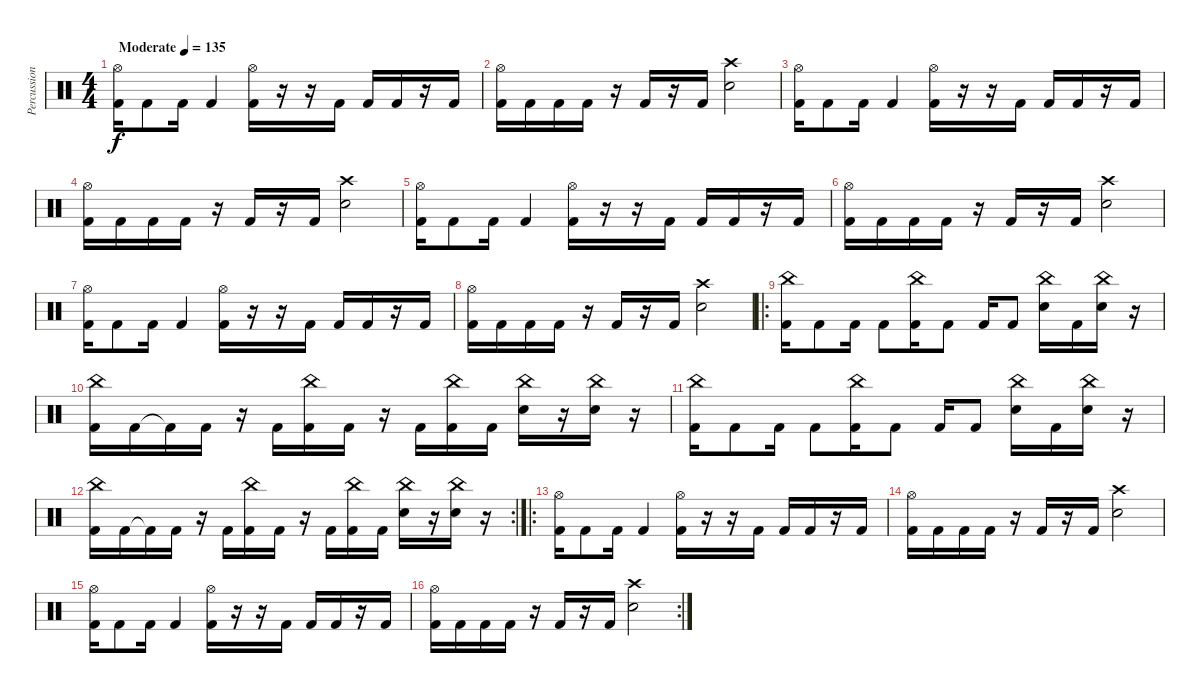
\track ("Percussion" "Percussion") {instrument percussion}
\staff {score}
\articulation defaults
\ts (4 4)
\tempo (135 "Moderate")
\clef neutral
\ks c
("Kick (hit) 2" "Hi-Hat (open)").16{dy f} "Kick (hit) 2".8 "Kick (hit) 2".16 "Kick (hit) 2".4 ("Kick (hit) 2" "Hi-Hat (open)").16 r.16 r.16 "Kick (hit) 2".16 "Kick (hit) 2".16 "Kick (hit) 2".16 r.16 "Kick (hit) 2".16 |
("Kick (hit) 2" "Hi-Hat (open)").16 "Kick (hit) 2".16 "Kick (hit) 2".16 "Kick (hit) 2".16 r.16 "Kick (hit) 2".16 r.16 "Kick (hit) 2".16 ("Snare (hit) 2" "Crash high (hit)").2 |
("Kick (hit) 2" "Hi-Hat (open)").16 "Kick (hit) 2".8 "Kick (hit) 2".16 "Kick (hit) 2".4 ("Kick (hit) 2" "Hi-Hat (open)").16 r.16 r.16 "Kick (hit) 2".16 "Kick (hit) 2".16 "Kick (hit) 2".16 r.16 "Kick (hit) 2".16 |
("Kick (hit) 2" "Hi-Hat (open)").16 "Kick (hit) 2".16 "Kick (hit) 2".16 "Kick (hit) 2".16 r.16 "Kick (hit) 2".16 r.16 "Kick (hit) 2".16 ("Snare (hit) 2" "Crash high (hit)").2 |
("Kick (hit) 2" "Hi-Hat (open)").16 "Kick (hit) 2".8 "Kick (hit) 2".16 "Kick (hit) 2".4 ("Kick (hit) 2" "Hi-Hat (open)").16 r.16 r.16 "Kick (hit) 2".16 "Kick (hit) 2".16 "Kick (hit) 2".16 r.16 "Kick (hit) 2".16 |
("Kick (hit) 2" "Hi-Hat (open)").16 "Kick (hit) 2".16 "Kick (hit) 2".16 "Kick (hit) 2".16 r.16 "Kick (hit) 2".16 r.16 "Kick (hit) 2".16 ("Snare (hit) 2" "Crash high (hit)").2 |
("Kick (hit) 2" "Hi-Hat (open)").16 "Kick (hit) 2".8 "Kick (hit) 2".16 "Kick (hit) 2".4 ("Kick (hit) 2" "Hi-Hat (open)").16 r.16 r.16 "Kick (hit) 2".16 "Kick (hit) 2".16 "Kick (hit) 2".16 r.16 "Kick (hit) 2".16 |
("Kick (hit) 2" "Hi-Hat (open)").16 "Kick (hit) 2".16 "Kick (hit) 2".16 "Kick (hit) 2".16 r.16 "Kick (hit) 2".16 r.16 "Kick (hit) 2".16 ("Snare (hit) 2" "Crash high (hit)").2 |
\ro
("Kick (hit) 2" "China (hit)").16 "Kick (hit) 2".8 "Kick (hit) 2".16 "Kick (hit) 2".8 ("Kick (hit) 2" "China (hit)").16 "Kick (hit) 2".8 "Kick (hit) 2".16 "Kick (hit) 2".8 ("Snare (hit) 2" "China (hit)").16 "Kick (hit) 2".16 ("Snare (hit) 2" "China (hit)").16 r.16 |
("Kick (hit) 2" "China (hit)").16 "Kick (hit) 2".16 "Kick (hit) 2"{t}.16 "Kick (hit) 2".16 r.16 "Kick (hit) 2".16 ("Kick (hit) 2" "China (hit)").16 "Kick (hit) 2".16 r.16 "Kick (hit) 2".16 ("Kick (hit) 2" "China (hit)").16 "Kick (hit) 2".16 ("Snare (hit) 2" "China (hit)").16 r.16 ("Snare (hit) 2" "China (hit)").16 r.16 |
("Kick (hit) 2" "China (hit)").16 "Kick (hit) 2".8 "Kick (hit) 2".16 "Kick (hit) 2".8 ("Kick (hit) 2" "China (hit)").16 "Kick (hit) 2".8 "Kick (hit) 2".16 "Kick (hit) 2".8 ("Snare (hit) 2" "China (hit)").16 "Kick (hit) 2".16 ("Snare (hit) 2" "China (hit)").16 r.16 |
\rc 2
("Kick (hit) 2" "China (hit)").16 "Kick (hit) 2".16 "Kick (hit) 2"{t}.16 "Kick (hit) 2".16 r.16 "Kick (hit) 2".16 ("Kick (hit) 2" "China (hit)").16 "Kick (hit) 2".16 r.16 "Kick (hit) 2".16 ("Kick (hit) 2" "China (hit)").16 "Kick (hit) 2".16 ("Snare (hit) 2" "China (hit)").16 r.16 ("Snare (hit) 2" "China (hit)").16 r.16 |
\ro
("Kick (hit) 2" "Hi-Hat (open)").16 "Kick (hit) 2".8 "Kick (hit) 2".16 "Kick (hit) 2".4 ("Kick (hit) 2" "Hi-Hat (open)").16 r.16 r.16 "Kick (hit) 2".16 "Kick (hit) 2".16 "Kick (hit) 2".16 r.16 "Kick (hit) 2".16 |
("Kick (hit) 2" "Hi-Hat (open)").16 "Kick (hit) 2".16 "Kick (hit) 2".16 "Kick (hit) 2".16 r.16 "Kick (hit) 2".16 r.16 "Kick (hit) 2".16 ("Snare (hit) 2" "Crash high (hit)").2 |
("Kick (hit) 2" "Hi-Hat (open)").16 "Kick (hit) 2".8 "Kick (hit) 2".16 "Kick (hit) 2".4 ("Kick (hit) 2" "Hi-Hat (open)").16 r.16 r.16 "Kick (hit) 2".16 "Kick (hit) 2".16 "Kick (hit) 2".16 r.16 "Kick (hit) 2".16 |
\rc 2
("Kick (hit) 2" "Hi-Hat (open)").16 "Kick (hit) 2".16 "Kick (hit) 2".16 "Kick (hit) 2".16 r.16 "Kick (hit) 2".16 r.16 "Kick (hit) 2".16 ("Snare (hit) 2" "Crash high (hit)").2
